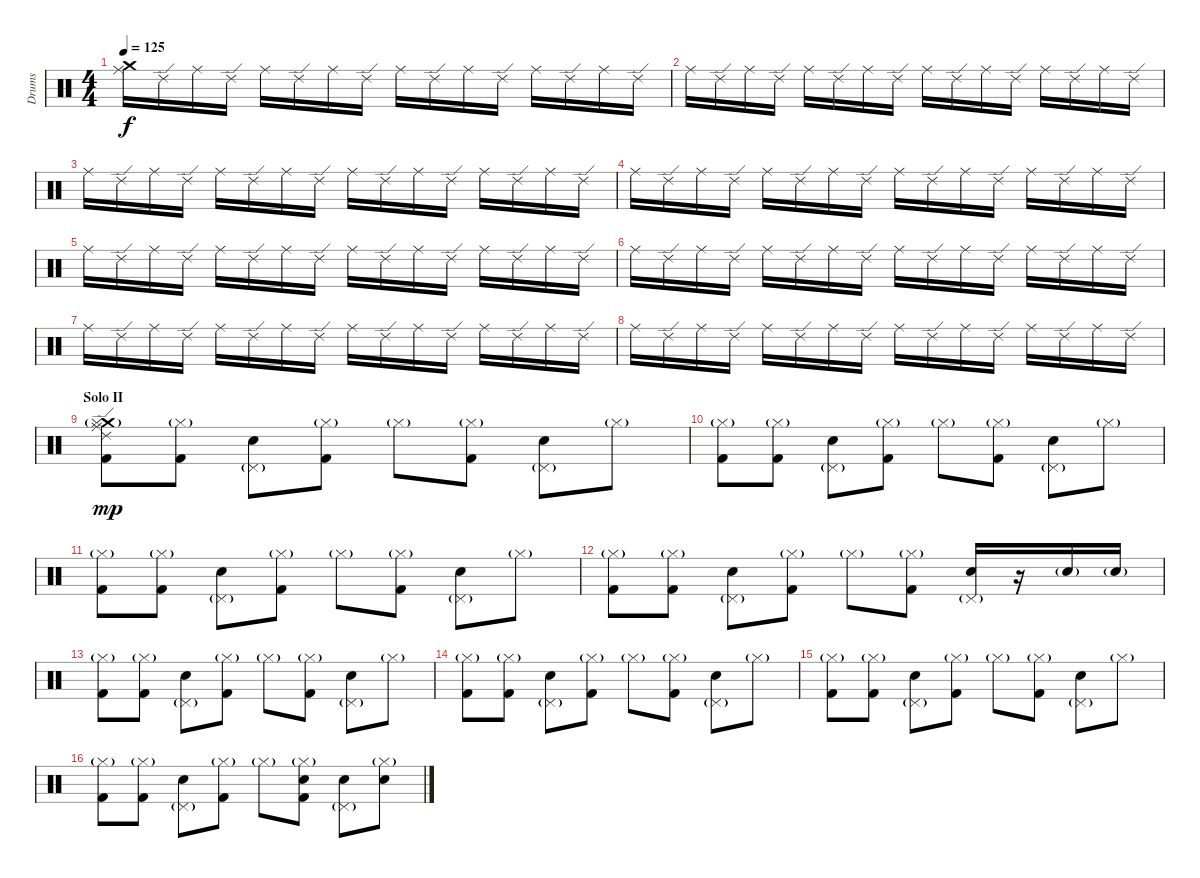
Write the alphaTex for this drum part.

\track ("Drums" "Drums") {instrument percussion}
\staff {score}
\articulation defaults
\ts (4 4)
\tempo 125
\clef neutral
\ks c
("Ride (middle)" "Crash medium (hit)").16{dy f} "Ride (edge) 2".16 "Ride (middle)".16 "Ride (edge) 2".16 "Ride (middle)".16 "Ride (edge) 2".16 "Ride (middle)".16 "Ride (edge) 2".16 "Ride (middle)".16 "Ride (edge) 2".16 "Ride (middle)".16 "Ride (edge) 2".16 "Ride (middle)".16 "Ride (edge) 2".16 "Ride (middle)".16 "Ride (edge) 2".16 |
"Ride (middle)".16 "Ride (edge) 2".16 "Ride (middle)".16 "Ride (edge) 2".16 "Ride (middle)".16 "Ride (edge) 2".16 "Ride (middle)".16 "Ride (edge) 2".16 "Ride (middle)".16 "Ride (edge) 2".16 "Ride (middle)".16 "Ride (edge) 2".16 "Ride (middle)".16 "Ride (edge) 2".16 "Ride (middle)".16 "Ride (edge) 2".16 |
"Ride (middle)".16 "Ride (edge) 2".16 "Ride (middle)".16 "Ride (edge) 2".16 "Ride (middle)".16 "Ride (edge) 2".16 "Ride (middle)".16 "Ride (edge) 2".16 "Ride (middle)".16 "Ride (edge) 2".16 "Ride (middle)".16 "Ride (edge) 2".16 "Ride (middle)".16 "Ride (edge) 2".16 "Ride (middle)".16 "Ride (edge) 2".16 |
"Ride (middle)".16 "Ride (edge) 2".16 "Ride (middle)".16 "Ride (edge) 2".16 "Ride (middle)".16 "Ride (edge) 2".16 "Ride (middle)".16 "Ride (edge) 2".16 "Ride (middle)".16 "Ride (edge) 2".16 "Ride (middle)".16 "Ride (edge) 2".16 "Ride (middle)".16 "Ride (edge) 2".16 "Ride (middle)".16 "Ride (edge) 2".16 |
"Ride (middle)".16 "Ride (edge) 2".16 "Ride (middle)".16 "Ride (edge) 2".16 "Ride (middle)".16 "Ride (edge) 2".16 "Ride (middle)".16 "Ride (edge) 2".16 "Ride (middle)".16 "Ride (edge) 2".16 "Ride (middle)".16 "Ride (edge) 2".16 "Ride (middle)".16 "Ride (edge) 2".16 "Ride (middle)".16 "Ride (edge) 2".16 |
"Ride (middle)".16 "Ride (edge) 2".16 "Ride (middle)".16 "Ride (edge) 2".16 "Ride (middle)".16 "Ride (edge) 2".16 "Ride (middle)".16 "Ride (edge) 2".16 "Ride (middle)".16 "Ride (edge) 2".16 "Ride (middle)".16 "Ride (edge) 2".16 "Ride (middle)".16 "Ride (edge) 2".16 "Ride (middle)".16 "Ride (edge) 2".16 |
"Ride (middle)".16 "Ride (edge) 2".16 "Ride (middle)".16 "Ride (edge) 2".16 "Ride (middle)".16 "Ride (edge) 2".16 "Ride (middle)".16 "Ride (edge) 2".16 "Ride (middle)".16 "Ride (edge) 2".16 "Ride (middle)".16 "Ride (edge) 2".16 "Ride (middle)".16 "Ride (edge) 2".16 "Ride (middle)".16 "Ride (edge) 2".16 |
"Ride (middle)".16 "Ride (edge) 2".16 "Ride (middle)".16 "Ride (edge) 2".16 "Ride (middle)".16 "Ride (edge) 2".16 "Ride (middle)".16 "Ride (edge) 2".16 "Ride (middle)".16 "Ride (edge) 2".16 "Ride (middle)".16 "Ride (edge) 2".16 "Ride (middle)".16 "Ride (edge) 2".16 "Ride (middle)".16 "Ride (edge) 2".16 |
\section ("" "Solo II")
("Crash medium (hit)" "Ride (middle)" "Hi-Hat (closed)"{g} "Ride (edge) 2" "Kick (hit) 2").8{dy mp} ("Hi-Hat (closed)"{g} "Kick (hit) 2").8 ("Electric Snare (hit)" "Pedal Hi-Hat (hit)"{g}).8 ("Hi-Hat (closed)"{g} "Kick (hit) 2").8 "Hi-Hat (closed)"{g}.8 ("Hi-Hat (closed)"{g} "Kick (hit) 2").8 ("Electric Snare (hit)" "Pedal Hi-Hat (hit)"{g}).8 "Hi-Hat (closed)"{g}.8 |
("Hi-Hat (closed)"{g} "Kick (hit) 2").8 ("Hi-Hat (closed)"{g} "Kick (hit) 2").8 ("Electric Snare (hit)" "Pedal Hi-Hat (hit)"{g}).8 ("Hi-Hat (closed)"{g} "Kick (hit) 2").8 "Hi-Hat (closed)"{g}.8 ("Hi-Hat (closed)"{g} "Kick (hit) 2").8 ("Electric Snare (hit)" "Pedal Hi-Hat (hit)"{g}).8 "Hi-Hat (closed)"{g}.8 |
("Hi-Hat (closed)"{g} "Kick (hit) 2").8 ("Hi-Hat (closed)"{g} "Kick (hit) 2").8 ("Electric Snare (hit)" "Pedal Hi-Hat (hit)"{g}).8 ("Hi-Hat (closed)"{g} "Kick (hit) 2").8 "Hi-Hat (closed)"{g}.8 ("Hi-Hat (closed)"{g} "Kick (hit) 2").8 ("Electric Snare (hit)" "Pedal Hi-Hat (hit)"{g}).8 "Hi-Hat (closed)"{g}.8 |
("Hi-Hat (closed)"{g} "Kick (hit) 2").8 ("Hi-Hat (closed)"{g} "Kick (hit) 2").8 ("Electric Snare (hit)" "Pedal Hi-Hat (hit)"{g}).8 ("Hi-Hat (closed)"{g} "Kick (hit) 2").8 "Hi-Hat (closed)"{g}.8 ("Hi-Hat (closed)"{g} "Kick (hit) 2").8 ("Electric Snare (hit)" "Pedal Hi-Hat (hit)"{g}).16 r.16 "Electric Snare (hit)"{g}.16 "Electric Snare (hit)"{g}.16 |
("Hi-Hat (closed)"{g} "Kick (hit) 2").8 ("Hi-Hat (closed)"{g} "Kick (hit) 2").8 ("Electric Snare (hit)" "Pedal Hi-Hat (hit)"{g}).8 ("Hi-Hat (closed)"{g} "Kick (hit) 2").8 "Hi-Hat (closed)"{g}.8 ("Hi-Hat (closed)"{g} "Kick (hit) 2").8 ("Electric Snare (hit)" "Pedal Hi-Hat (hit)"{g}).8 "Hi-Hat (closed)"{g}.8 |
("Hi-Hat (closed)"{g} "Kick (hit) 2").8 ("Hi-Hat (closed)"{g} "Kick (hit) 2").8 ("Electric Snare (hit)" "Pedal Hi-Hat (hit)"{g}).8 ("Hi-Hat (closed)"{g} "Kick (hit) 2").8 "Hi-Hat (closed)"{g}.8 ("Hi-Hat (closed)"{g} "Kick (hit) 2").8 ("Electric Snare (hit)" "Pedal Hi-Hat (hit)"{g}).8 "Hi-Hat (closed)"{g}.8 |
("Hi-Hat (closed)"{g} "Kick (hit) 2").8 ("Hi-Hat (closed)"{g} "Kick (hit) 2").8 ("Electric Snare (hit)" "Pedal Hi-Hat (hit)"{g}).8 ("Hi-Hat (closed)"{g} "Kick (hit) 2").8 "Hi-Hat (closed)"{g}.8 ("Hi-Hat (closed)"{g} "Kick (hit) 2").8 ("Electric Snare (hit)" "Pedal Hi-Hat (hit)"{g}).8 "Hi-Hat (closed)"{g}.8 |
("Hi-Hat (closed)"{g} "Kick (hit) 2").8 ("Hi-Hat (closed)"{g} "Kick (hit) 2").8 ("Electric Snare (hit)" "Pedal Hi-Hat (hit)"{g}).8 ("Hi-Hat (closed)"{g} "Kick (hit) 2").8 "Hi-Hat (closed)"{g}.8 ("Electric Snare (hit)" "Hi-Hat (closed)"{g} "Kick (hit) 2").8 ("Electric Snare (hit)" "Pedal Hi-Hat (hit)"{g}).8 ("Electric Snare (hit)" "Hi-Hat (closed)"{g}).8
